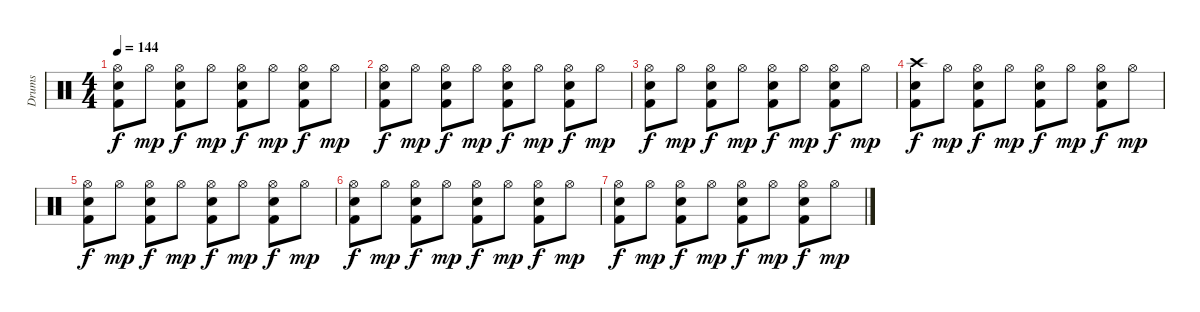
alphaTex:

\track ("Drums" "Drums") {instrument percussion}
\staff {score}
\articulation defaults
\ts (4 4)
\tempo 144
\clef neutral
\ks c
("Hi-Hat (open)" "Snare (hit) 2" "Kick (hit) 2").8{dy f} "Hi-Hat (open)".8{dy mp} ("Hi-Hat (open)" "Snare (hit) 2" "Kick (hit) 2").8{dy f} "Hi-Hat (open)".8{dy mp} ("Hi-Hat (open)" "Snare (hit) 2" "Kick (hit) 2").8{dy f} "Hi-Hat (open)".8{dy mp} ("Hi-Hat (open)" "Snare (hit) 2" "Kick (hit) 2").8{dy f} "Hi-Hat (open)".8{dy mp} |
("Hi-Hat (open)" "Snare (hit) 2" "Kick (hit) 2").8{dy f} "Hi-Hat (open)".8{dy mp} ("Hi-Hat (open)" "Snare (hit) 2" "Kick (hit) 2").8{dy f} "Hi-Hat (open)".8{dy mp} ("Hi-Hat (open)" "Snare (hit) 2" "Kick (hit) 2").8{dy f} "Hi-Hat (open)".8{dy mp} ("Hi-Hat (open)" "Snare (hit) 2" "Kick (hit) 2").8{dy f} "Hi-Hat (open)".8{dy mp} |
("Hi-Hat (open)" "Snare (hit) 2" "Kick (hit) 2").8{dy f} "Hi-Hat (open)".8{dy mp} ("Hi-Hat (open)" "Snare (hit) 2" "Kick (hit) 2").8{dy f} "Hi-Hat (open)".8{dy mp} ("Hi-Hat (open)" "Snare (hit) 2" "Kick (hit) 2").8{dy f} "Hi-Hat (open)".8{dy mp} ("Hi-Hat (open)" "Snare (hit) 2" "Kick (hit) 2").8{dy f} "Hi-Hat (open)".8{dy mp} |
("Crash high (hit)" "Snare (hit) 2" "Kick (hit) 2").8{dy f volume 0} "Hi-Hat (open)".8{dy mp} ("Hi-Hat (open)" "Snare (hit) 2" "Kick (hit) 2").8{dy f} "Hi-Hat (open)".8{dy mp} ("Hi-Hat (open)" "Snare (hit) 2" "Kick (hit) 2").8{dy f} "Hi-Hat (open)".8{dy mp} ("Hi-Hat (open)" "Snare (hit) 2" "Kick (hit) 2").8{dy f} "Hi-Hat (open)".8{dy mp} |
("Hi-Hat (open)" "Snare (hit) 2" "Kick (hit) 2").8{dy f} "Hi-Hat (open)".8{dy mp} ("Hi-Hat (open)" "Snare (hit) 2" "Kick (hit) 2").8{dy f} "Hi-Hat (open)".8{dy mp} ("Hi-Hat (open)" "Snare (hit) 2" "Kick (hit) 2").8{dy f} "Hi-Hat (open)".8{dy mp} ("Hi-Hat (open)" "Snare (hit) 2" "Kick (hit) 2").8{dy f} "Hi-Hat (open)".8{dy mp} |
("Hi-Hat (open)" "Snare (hit) 2" "Kick (hit) 2").8{dy f} "Hi-Hat (open)".8{dy mp} ("Hi-Hat (open)" "Snare (hit) 2" "Kick (hit) 2").8{dy f} "Hi-Hat (open)".8{dy mp} ("Hi-Hat (open)" "Snare (hit) 2" "Kick (hit) 2").8{dy f} "Hi-Hat (open)".8{dy mp} ("Hi-Hat (open)" "Snare (hit) 2" "Kick (hit) 2").8{dy f} "Hi-Hat (open)".8{dy mp} |
("Hi-Hat (open)" "Snare (hit) 2" "Kick (hit) 2").8{dy f} "Hi-Hat (open)".8{dy mp} ("Hi-Hat (open)" "Snare (hit) 2" "Kick (hit) 2").8{dy f} "Hi-Hat (open)".8{dy mp} ("Hi-Hat (open)" "Snare (hit) 2" "Kick (hit) 2").8{dy f} "Hi-Hat (open)".8{dy mp} ("Hi-Hat (open)" "Snare (hit) 2" "Kick (hit) 2").8{dy f} "Hi-Hat (open)".8{dy mp}
